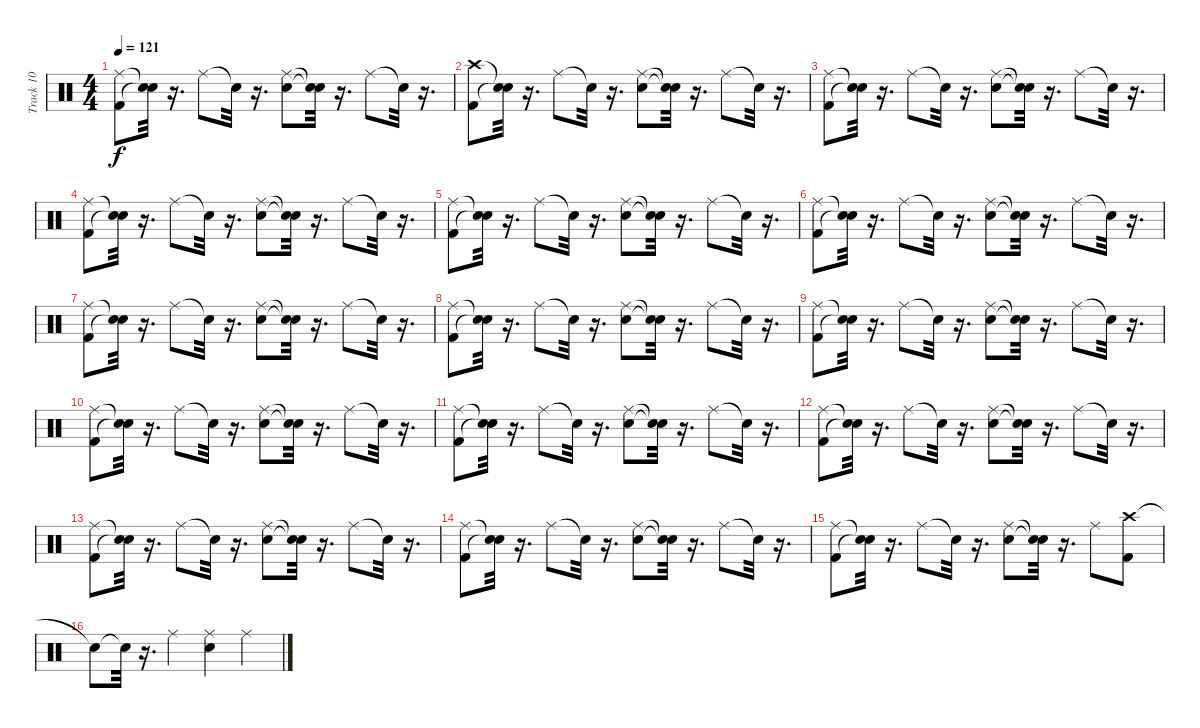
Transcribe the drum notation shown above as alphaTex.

\track ("Track 10" "Track 10") {instrument percussion}
\staff {score}
\articulation defaults
\ts (4 4)
\tempo 121
\clef neutral
\ks c
("Ride (middle)" "Kick (hit) 2").8{dy f} ("Snare (hit)"{t} "Snare (hit)"{t}).32 r.16{d} "Ride (middle)".8 "Snare (hit)"{t}.32 r.16{d} ("Snare (hit) 2" "Ride (middle)").8 ("Snare (hit)"{t} "Snare (hit)"{t}).32 r.16{d} "Ride (middle)".8 "Snare (hit)"{t}.32 r.16{d} |
("Crash high (hit)" "Kick (hit) 2").8 ("Snare (hit)"{t} "Snare (hit)"{t}).32 r.16{d} "Ride (middle)".8 "Snare (hit)"{t}.32 r.16{d} ("Snare (hit) 2" "Ride (middle)").8 ("Snare (hit)"{t} "Snare (hit)"{t}).32 r.16{d} "Ride (middle)".8 "Snare (hit)"{t}.32 r.16{d} |
("Ride (middle)" "Kick (hit) 2").8 ("Snare (hit)"{t} "Snare (hit)"{t}).32 r.16{d} "Ride (middle)".8 "Snare (hit)"{t}.32 r.16{d} ("Snare (hit) 2" "Ride (middle)").8 ("Snare (hit)"{t} "Snare (hit)"{t}).32 r.16{d} "Ride (middle)".8 "Snare (hit)"{t}.32 r.16{d} |
("Ride (middle)" "Kick (hit) 2").8 ("Snare (hit)"{t} "Snare (hit)"{t}).32 r.16{d} "Ride (middle)".8 "Snare (hit)"{t}.32 r.16{d} ("Snare (hit) 2" "Ride (middle)").8 ("Snare (hit)"{t} "Snare (hit)"{t}).32 r.16{d} "Ride (middle)".8 "Snare (hit)"{t}.32 r.16{d} |
("Ride (middle)" "Kick (hit) 2").8 ("Snare (hit)"{t} "Snare (hit)"{t}).32 r.16{d} "Ride (middle)".8 "Snare (hit)"{t}.32 r.16{d} ("Snare (hit) 2" "Ride (middle)").8 ("Snare (hit)"{t} "Snare (hit)"{t}).32 r.16{d} "Ride (middle)".8 "Snare (hit)"{t}.32 r.16{d} |
("Ride (middle)" "Kick (hit) 2").8 ("Snare (hit)"{t} "Snare (hit)"{t}).32 r.16{d} "Ride (middle)".8 "Snare (hit)"{t}.32 r.16{d} ("Snare (hit) 2" "Ride (middle)").8 ("Snare (hit)"{t} "Snare (hit)"{t}).32 r.16{d} "Ride (middle)".8 "Snare (hit)"{t}.32 r.16{d} |
("Ride (middle)" "Kick (hit) 2").8 ("Snare (hit)"{t} "Snare (hit)"{t}).32 r.16{d} "Ride (middle)".8 "Snare (hit)"{t}.32 r.16{d} ("Snare (hit) 2" "Ride (middle)").8 ("Snare (hit)"{t} "Snare (hit)"{t}).32 r.16{d} "Ride (middle)".8 "Snare (hit)"{t}.32 r.16{d} |
("Ride (middle)" "Kick (hit) 2").8 ("Snare (hit)"{t} "Snare (hit)"{t}).32 r.16{d} "Ride (middle)".8 "Snare (hit)"{t}.32 r.16{d} ("Snare (hit) 2" "Ride (middle)").8 ("Snare (hit)"{t} "Snare (hit)"{t}).32 r.16{d} "Ride (middle)".8 "Snare (hit)"{t}.32 r.16{d} |
("Ride (middle)" "Kick (hit) 2").8 ("Snare (hit)"{t} "Snare (hit)"{t}).32 r.16{d} "Ride (middle)".8 "Snare (hit)"{t}.32 r.16{d} ("Snare (hit) 2" "Ride (middle)").8 ("Snare (hit)"{t} "Snare (hit)"{t}).32 r.16{d} "Ride (middle)".8 "Snare (hit)"{t}.32 r.16{d} |
("Ride (middle)" "Kick (hit) 2").8 ("Snare (hit)"{t} "Snare (hit)"{t}).32 r.16{d} "Ride (middle)".8 "Snare (hit)"{t}.32 r.16{d} ("Snare (hit) 2" "Ride (middle)").8 ("Snare (hit)"{t} "Snare (hit)"{t}).32 r.16{d} "Ride (middle)".8 "Snare (hit)"{t}.32 r.16{d} |
("Ride (middle)" "Kick (hit) 2").8 ("Snare (hit)"{t} "Snare (hit)"{t}).32 r.16{d} "Ride (middle)".8 "Snare (hit)"{t}.32 r.16{d} ("Snare (hit) 2" "Ride (middle)").8 ("Snare (hit)"{t} "Snare (hit)"{t}).32 r.16{d} "Ride (middle)".8 "Snare (hit)"{t}.32 r.16{d} |
("Ride (middle)" "Kick (hit) 2").8 ("Snare (hit)"{t} "Snare (hit)"{t}).32 r.16{d} "Ride (middle)".8 "Snare (hit)"{t}.32 r.16{d} ("Snare (hit) 2" "Ride (middle)").8 ("Snare (hit)"{t} "Snare (hit)"{t}).32 r.16{d} "Ride (middle)".8 "Snare (hit)"{t}.32 r.16{d} |
("Ride (middle)" "Kick (hit) 2").8 ("Snare (hit)"{t} "Snare (hit)"{t}).32 r.16{d} "Ride (middle)".8 "Snare (hit)"{t}.32 r.16{d} ("Snare (hit) 2" "Ride (middle)").8 ("Snare (hit)"{t} "Snare (hit)"{t}).32 r.16{d} "Ride (middle)".8 "Snare (hit)"{t}.32 r.16{d} |
("Ride (middle)" "Kick (hit) 2").8 ("Snare (hit)"{t} "Snare (hit)"{t}).32 r.16{d} "Ride (middle)".8 "Snare (hit)"{t}.32 r.16{d} ("Snare (hit) 2" "Ride (middle)").8 ("Snare (hit)"{t} "Snare (hit)"{t}).32 r.16{d} "Ride (middle)".8 "Snare (hit)"{t}.32 r.16{d} |
("Ride (middle)" "Kick (hit) 2").8 ("Snare (hit)"{t} "Snare (hit)"{t}).32 r.16{d} "Ride (middle)".8 "Snare (hit)"{t}.32 r.16{d} ("Snare (hit) 2" "Ride (middle)").8 ("Snare (hit)"{t} "Snare (hit)"{t}).32 r.16{d} "Ride (middle)".8 ("Crash high (hit)" "Kick (hit) 2").8 |
"Snare (hit)"{t}.8 "Snare (hit)"{t}.32 r.16{d} "Ride (middle)".4 ("Snare (hit) 2" "Ride (middle)").4 "Ride (middle)".4
